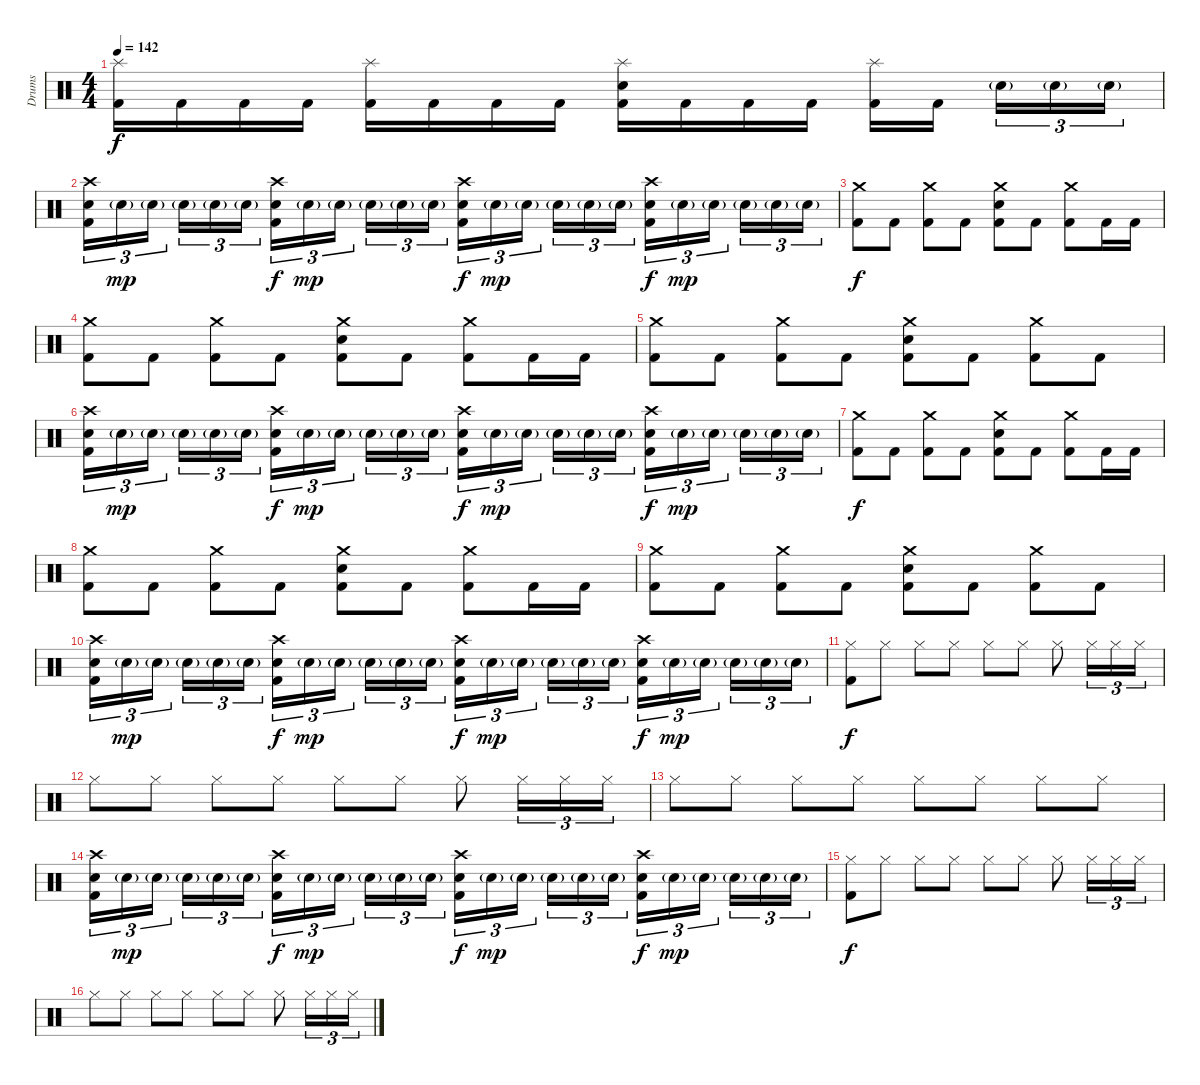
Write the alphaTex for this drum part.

\track ("Drums" "Drums") {instrument percussion}
\staff {score}
\articulation defaults
\ts (4 4)
\tempo 142
\clef neutral
\ks c
("Splash (hit)" "Kick (hit) 2").16{dy f} "Kick (hit) 2".16 "Kick (hit) 2".16 "Kick (hit) 2".16 ("Splash (hit)" "Kick (hit) 2").16 "Kick (hit) 2".16 "Kick (hit) 2".16 "Kick (hit) 2".16 ("Splash (hit)" "Electric Snare (hit)" "Kick (hit) 2").16 "Kick (hit) 2".16 "Kick (hit) 2".16 "Kick (hit) 2".16 ("Splash (hit)" "Kick (hit) 2").16 "Kick (hit) 2".16{beam splitsecondary} "Electric Snare (hit)"{g}.16{tu (3 2)} "Electric Snare (hit)"{g}.16{tu (3 2)} "Electric Snare (hit)"{g}.16{tu (3 2)} |
("Crash high (hit)" "Electric Snare (hit)" "Kick (hit) 2").16{tu (3 2)} "Electric Snare (hit)"{g}.16{tu (3 2) dy mp} "Electric Snare (hit)"{g}.16{tu (3 2) beam splitsecondary} "Electric Snare (hit)"{g}.16{tu (3 2)} "Electric Snare (hit)"{g}.16{tu (3 2)} "Electric Snare (hit)"{g}.16{tu (3 2)} ("Crash high (hit)" "Electric Snare (hit)" "Kick (hit) 2").16{tu (3 2) dy f} "Electric Snare (hit)"{g}.16{tu (3 2) dy mp} "Electric Snare (hit)"{g}.16{tu (3 2) beam splitsecondary} "Electric Snare (hit)"{g}.16{tu (3 2)} "Electric Snare (hit)"{g}.16{tu (3 2)} "Electric Snare (hit)"{g}.16{tu (3 2)} ("Crash high (hit)" "Electric Snare (hit)" "Kick (hit) 2").16{tu (3 2) dy f} "Electric Snare (hit)"{g}.16{tu (3 2) dy mp} "Electric Snare (hit)"{g}.16{tu (3 2) beam splitsecondary} "Electric Snare (hit)"{g}.16{tu (3 2)} "Electric Snare (hit)"{g}.16{tu (3 2)} "Electric Snare (hit)"{g}.16{tu (3 2)} ("Crash high (hit)" "Electric Snare (hit)" "Kick (hit) 2").16{tu (3 2) dy f} "Electric Snare (hit)"{g}.16{tu (3 2) dy mp} "Electric Snare (hit)"{g}.16{tu (3 2) beam splitsecondary} "Electric Snare (hit)"{g}.16{tu (3 2)} "Electric Snare (hit)"{g}.16{tu (3 2)} "Electric Snare (hit)"{g}.16{tu (3 2)} |
("Crash medium (hit)" "Kick (hit) 2").8{dy f} "Kick (hit) 2".8 ("Crash medium (hit)" "Kick (hit) 2").8 "Kick (hit) 2".8 ("Crash medium (hit)" "Electric Snare (hit)" "Kick (hit) 2").8 "Kick (hit) 2".8 ("Crash medium (hit)" "Kick (hit) 2").8 "Kick (hit) 2".16 "Kick (hit) 2".16 |
("Crash medium (hit)" "Kick (hit) 2").8 "Kick (hit) 2".8 ("Crash medium (hit)" "Kick (hit) 2").8 "Kick (hit) 2".8 ("Crash medium (hit)" "Electric Snare (hit)" "Kick (hit) 2").8 "Kick (hit) 2".8 ("Crash medium (hit)" "Kick (hit) 2").8 "Kick (hit) 2".16 "Kick (hit) 2".16 |
("Crash medium (hit)" "Kick (hit) 2").8 "Kick (hit) 2".8 ("Crash medium (hit)" "Kick (hit) 2").8 "Kick (hit) 2".8 ("Crash medium (hit)" "Electric Snare (hit)" "Kick (hit) 2").8 "Kick (hit) 2".8 ("Crash medium (hit)" "Kick (hit) 2").8 "Kick (hit) 2".8 |
("Crash high (hit)" "Electric Snare (hit)" "Kick (hit) 2").16{tu (3 2)} "Electric Snare (hit)"{g}.16{tu (3 2) dy mp} "Electric Snare (hit)"{g}.16{tu (3 2) beam splitsecondary} "Electric Snare (hit)"{g}.16{tu (3 2)} "Electric Snare (hit)"{g}.16{tu (3 2)} "Electric Snare (hit)"{g}.16{tu (3 2)} ("Crash high (hit)" "Electric Snare (hit)" "Kick (hit) 2").16{tu (3 2) dy f} "Electric Snare (hit)"{g}.16{tu (3 2) dy mp} "Electric Snare (hit)"{g}.16{tu (3 2) beam splitsecondary} "Electric Snare (hit)"{g}.16{tu (3 2)} "Electric Snare (hit)"{g}.16{tu (3 2)} "Electric Snare (hit)"{g}.16{tu (3 2)} ("Crash high (hit)" "Electric Snare (hit)" "Kick (hit) 2").16{tu (3 2) dy f} "Electric Snare (hit)"{g}.16{tu (3 2) dy mp} "Electric Snare (hit)"{g}.16{tu (3 2) beam splitsecondary} "Electric Snare (hit)"{g}.16{tu (3 2)} "Electric Snare (hit)"{g}.16{tu (3 2)} "Electric Snare (hit)"{g}.16{tu (3 2)} ("Crash high (hit)" "Electric Snare (hit)" "Kick (hit) 2").16{tu (3 2) dy f} "Electric Snare (hit)"{g}.16{tu (3 2) dy mp} "Electric Snare (hit)"{g}.16{tu (3 2) beam splitsecondary} "Electric Snare (hit)"{g}.16{tu (3 2)} "Electric Snare (hit)"{g}.16{tu (3 2)} "Electric Snare (hit)"{g}.16{tu (3 2)} |
("Crash medium (hit)" "Kick (hit) 2").8{dy f} "Kick (hit) 2".8 ("Crash medium (hit)" "Kick (hit) 2").8 "Kick (hit) 2".8 ("Crash medium (hit)" "Electric Snare (hit)" "Kick (hit) 2").8 "Kick (hit) 2".8 ("Crash medium (hit)" "Kick (hit) 2").8 "Kick (hit) 2".16 "Kick (hit) 2".16 |
("Crash medium (hit)" "Kick (hit) 2").8 "Kick (hit) 2".8 ("Crash medium (hit)" "Kick (hit) 2").8 "Kick (hit) 2".8 ("Crash medium (hit)" "Electric Snare (hit)" "Kick (hit) 2").8 "Kick (hit) 2".8 ("Crash medium (hit)" "Kick (hit) 2").8 "Kick (hit) 2".16 "Kick (hit) 2".16 |
("Crash medium (hit)" "Kick (hit) 2").8 "Kick (hit) 2".8 ("Crash medium (hit)" "Kick (hit) 2").8 "Kick (hit) 2".8 ("Crash medium (hit)" "Electric Snare (hit)" "Kick (hit) 2").8 "Kick (hit) 2".8 ("Crash medium (hit)" "Kick (hit) 2").8 "Kick (hit) 2".8 |
("Crash high (hit)" "Electric Snare (hit)" "Kick (hit) 2").16{tu (3 2)} "Electric Snare (hit)"{g}.16{tu (3 2) dy mp} "Electric Snare (hit)"{g}.16{tu (3 2) beam splitsecondary} "Electric Snare (hit)"{g}.16{tu (3 2)} "Electric Snare (hit)"{g}.16{tu (3 2)} "Electric Snare (hit)"{g}.16{tu (3 2)} ("Crash high (hit)" "Electric Snare (hit)" "Kick (hit) 2").16{tu (3 2) dy f} "Electric Snare (hit)"{g}.16{tu (3 2) dy mp} "Electric Snare (hit)"{g}.16{tu (3 2) beam splitsecondary} "Electric Snare (hit)"{g}.16{tu (3 2)} "Electric Snare (hit)"{g}.16{tu (3 2)} "Electric Snare (hit)"{g}.16{tu (3 2)} ("Crash high (hit)" "Electric Snare (hit)" "Kick (hit) 2").16{tu (3 2) dy f} "Electric Snare (hit)"{g}.16{tu (3 2) dy mp} "Electric Snare (hit)"{g}.16{tu (3 2) beam splitsecondary} "Electric Snare (hit)"{g}.16{tu (3 2)} "Electric Snare (hit)"{g}.16{tu (3 2)} "Electric Snare (hit)"{g}.16{tu (3 2)} ("Crash high (hit)" "Electric Snare (hit)" "Kick (hit) 2").16{tu (3 2) dy f} "Electric Snare (hit)"{g}.16{tu (3 2) dy mp} "Electric Snare (hit)"{g}.16{tu (3 2) beam splitsecondary} "Electric Snare (hit)"{g}.16{tu (3 2)} "Electric Snare (hit)"{g}.16{tu (3 2)} "Electric Snare (hit)"{g}.16{tu (3 2)} |
("Hi-Hat (closed)" "Kick (hit) 2").8{dy f balance 0} "Hi-Hat (closed)".8 "Hi-Hat (closed)".8 "Hi-Hat (closed)".8 "Hi-Hat (closed)".8 "Hi-Hat (closed)".8 "Hi-Hat (closed)".8 "Hi-Hat (closed)".16{tu (3 2)} "Hi-Hat (closed)".16{tu (3 2)} "Hi-Hat (closed)".16{tu (3 2)} |
"Hi-Hat (closed)".8 "Hi-Hat (closed)".8 "Hi-Hat (closed)".8 "Hi-Hat (closed)".8 "Hi-Hat (closed)".8 "Hi-Hat (closed)".8 "Hi-Hat (closed)".8 "Hi-Hat (closed)".16{tu (3 2)} "Hi-Hat (closed)".16{tu (3 2)} "Hi-Hat (closed)".16{tu (3 2)} |
"Hi-Hat (closed)".8 "Hi-Hat (closed)".8 "Hi-Hat (closed)".8 "Hi-Hat (closed)".8 "Hi-Hat (closed)".8 "Hi-Hat (closed)".8 "Hi-Hat (closed)".8 "Hi-Hat (closed)".8 |
("Crash high (hit)" "Electric Snare (hit)" "Kick (hit) 2").16{tu (3 2) balance 8} "Electric Snare (hit)"{g}.16{tu (3 2) dy mp} "Electric Snare (hit)"{g}.16{tu (3 2) beam splitsecondary} "Electric Snare (hit)"{g}.16{tu (3 2)} "Electric Snare (hit)"{g}.16{tu (3 2)} "Electric Snare (hit)"{g}.16{tu (3 2)} ("Crash high (hit)" "Electric Snare (hit)" "Kick (hit) 2").16{tu (3 2) dy f} "Electric Snare (hit)"{g}.16{tu (3 2) dy mp} "Electric Snare (hit)"{g}.16{tu (3 2) beam splitsecondary} "Electric Snare (hit)"{g}.16{tu (3 2)} "Electric Snare (hit)"{g}.16{tu (3 2)} "Electric Snare (hit)"{g}.16{tu (3 2)} ("Crash high (hit)" "Electric Snare (hit)" "Kick (hit) 2").16{tu (3 2) dy f} "Electric Snare (hit)"{g}.16{tu (3 2) dy mp} "Electric Snare (hit)"{g}.16{tu (3 2) beam splitsecondary} "Electric Snare (hit)"{g}.16{tu (3 2)} "Electric Snare (hit)"{g}.16{tu (3 2)} "Electric Snare (hit)"{g}.16{tu (3 2)} ("Crash high (hit)" "Electric Snare (hit)" "Kick (hit) 2").16{tu (3 2) dy f} "Electric Snare (hit)"{g}.16{tu (3 2) dy mp} "Electric Snare (hit)"{g}.16{tu (3 2) beam splitsecondary} "Electric Snare (hit)"{g}.16{tu (3 2)} "Electric Snare (hit)"{g}.16{tu (3 2)} "Electric Snare (hit)"{g}.16{tu (3 2)} |
("Hi-Hat (closed)" "Kick (hit) 2").8{dy f balance 0} "Hi-Hat (closed)".8 "Hi-Hat (closed)".8 "Hi-Hat (closed)".8 "Hi-Hat (closed)".8 "Hi-Hat (closed)".8 "Hi-Hat (closed)".8 "Hi-Hat (closed)".16{tu (3 2)} "Hi-Hat (closed)".16{tu (3 2)} "Hi-Hat (closed)".16{tu (3 2)} |
"Hi-Hat (closed)".8 "Hi-Hat (closed)".8 "Hi-Hat (closed)".8 "Hi-Hat (closed)".8 "Hi-Hat (closed)".8 "Hi-Hat (closed)".8 "Hi-Hat (closed)".8 "Hi-Hat (closed)".16{tu (3 2)} "Hi-Hat (closed)".16{tu (3 2)} "Hi-Hat (closed)".16{tu (3 2)}
